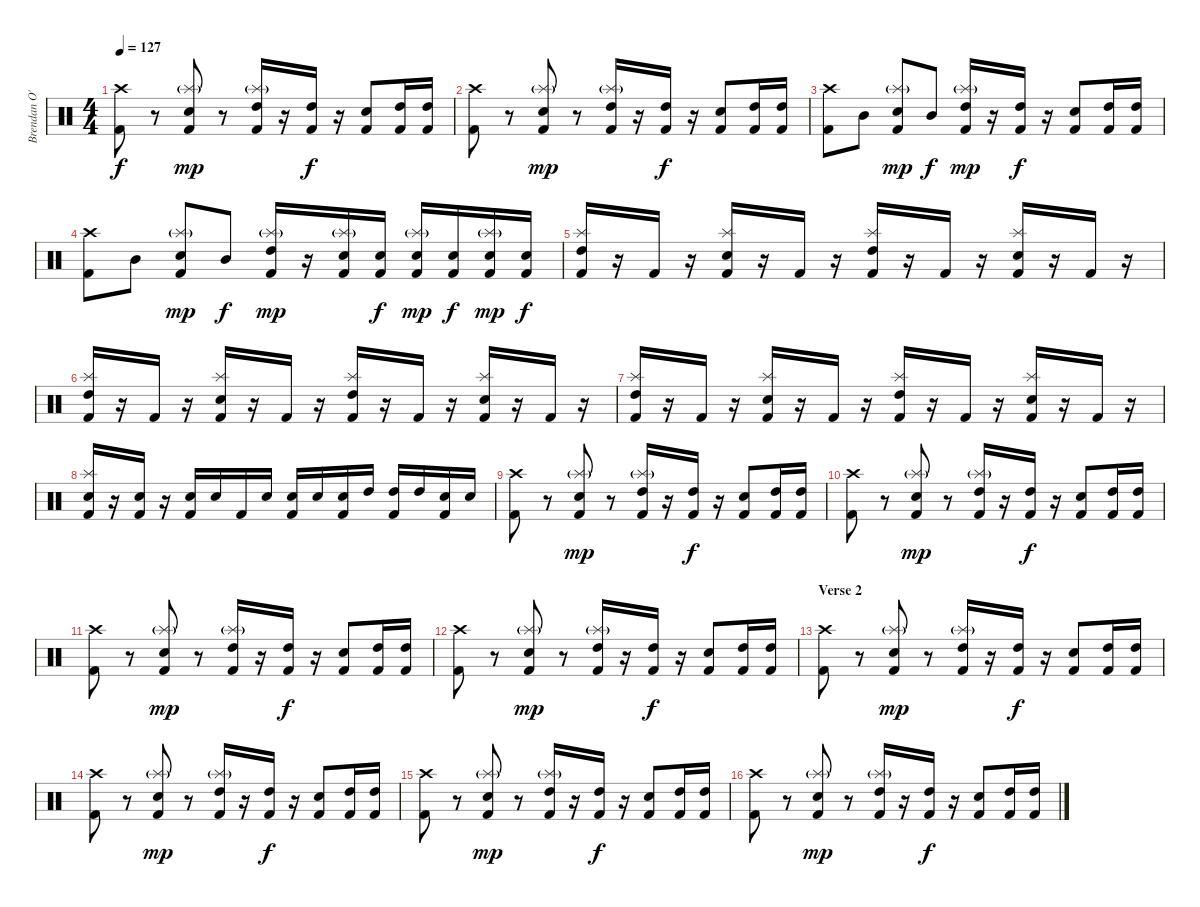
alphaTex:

\track ("Brendan O'Neil" "Brendan O'") {instrument percussion}
\staff {score}
\articulation defaults
\ts (4 4)
\tempo 127
\clef neutral
\ks c
("Crash high (hit)" "Kick (hit) 2").8{dy f} r.8 ("Splash (hit)"{g} "Snare (hit) 2" "Kick (hit) 2").8{dy mp} r.8 ("Splash (hit)"{g} "High Tom (hit)" "Kick (hit) 2").16 r.16 ("High Tom (hit)" "Kick (hit) 2").16{dy f} r.16 ("Snare (hit) 2" "Kick (hit) 2").8 ("High Tom (hit)" "Kick (hit) 2").16 ("High Tom (hit)" "Kick (hit) 2").16 |
("Crash high (hit)" "Kick (hit) 2").8 r.8 ("Splash (hit)"{g} "Snare (hit) 2" "Kick (hit) 2").8{dy mp} r.8 ("Splash (hit)"{g} "High Tom (hit)" "Kick (hit) 2").16 r.16 ("High Tom (hit)" "Kick (hit) 2").16{dy f} r.16 ("Snare (hit) 2" "Kick (hit) 2").8 ("High Tom (hit)" "Kick (hit) 2").16 ("High Tom (hit)" "Kick (hit) 2").16 |
("Crash high (hit)" "Kick (hit) 2").8 "Mid Tom (hit)".8 ("Splash (hit)"{g} "Snare (hit) 2" "Kick (hit) 2").8{dy mp} "Mid Tom (hit)".8{dy f} ("Splash (hit)"{g} "High Tom (hit)" "Kick (hit) 2").16{dy mp} r.16 ("High Tom (hit)" "Kick (hit) 2").16{dy f} r.16 ("Snare (hit) 2" "Kick (hit) 2").8 ("High Tom (hit)" "Kick (hit) 2").16 ("High Tom (hit)" "Kick (hit) 2").16 |
("Crash high (hit)" "Kick (hit) 2").8 "Mid Tom (hit)".8 ("Splash (hit)"{g} "Snare (hit) 2" "Kick (hit) 2").8{dy mp} "Mid Tom (hit)".8{dy f} ("Splash (hit)"{g} "High Tom (hit)" "Kick (hit) 2").16{dy mp} r.16 ("Splash (hit)"{g} "Snare (hit) 2" "Kick (hit) 2").16 ("Snare (hit) 2" "Kick (hit) 2").16{dy f} ("Splash (hit)"{g} "Snare (hit) 2" "Kick (hit) 2").16{dy mp} ("Snare (hit) 2" "Kick (hit) 2").16{dy f} ("Splash (hit)"{g} "Snare (hit) 2" "Kick (hit) 2").16{dy mp} ("Snare (hit) 2" "Kick (hit) 2").16{dy f} |
("Splash (hit)" "High Tom (hit)" "Kick (hit) 2").16 r.16 "Kick (hit) 2".16 r.16 ("Splash (hit)" "Snare (hit) 2" "Kick (hit) 2").16 r.16 "Kick (hit) 2".16 r.16 ("Splash (hit)" "High Tom (hit)" "Kick (hit) 2").16 r.16 "Kick (hit) 2".16 r.16 ("Splash (hit)" "Snare (hit) 2" "Kick (hit) 2").16 r.16 "Kick (hit) 2".16 r.16 |
("Splash (hit)" "High Tom (hit)" "Kick (hit) 2").16 r.16 "Kick (hit) 2".16 r.16 ("Splash (hit)" "Snare (hit) 2" "Kick (hit) 2").16 r.16 "Kick (hit) 2".16 r.16 ("Splash (hit)" "High Tom (hit)" "Kick (hit) 2").16 r.16 "Kick (hit) 2".16 r.16 ("Splash (hit)" "Snare (hit) 2" "Kick (hit) 2").16 r.16 "Kick (hit) 2".16 r.16 |
("Splash (hit)" "High Tom (hit)" "Kick (hit) 2").16 r.16 "Kick (hit) 2".16 r.16 ("Splash (hit)" "Snare (hit) 2" "Kick (hit) 2").16 r.16 "Kick (hit) 2".16 r.16 ("Splash (hit)" "High Tom (hit)" "Kick (hit) 2").16 r.16 "Kick (hit) 2".16 r.16 ("Splash (hit)" "Snare (hit) 2" "Kick (hit) 2").16 r.16 "Kick (hit) 2".16 r.16 |
("Splash (hit)" "Snare (hit) 2" "Kick (hit) 2").16 r.16 ("Snare (hit) 2" "Kick (hit) 2").16 r.16 ("Snare (hit) 2" "Kick (hit) 2").16 "Snare (hit) 2".16 "Kick (hit) 2".16 "Snare (hit) 2".16 ("Snare (hit) 2" "Kick (hit) 2").16 "Snare (hit) 2".16 ("Snare (hit) 2" "Kick (hit) 2").16 "High Tom (hit)".16 ("High Tom (hit)" "Kick (hit) 2").16 "High Tom (hit)".16 ("Snare (hit) 2" "Kick (hit) 2").16 "Snare (hit) 2".16 |
("Crash high (hit)" "Kick (hit) 2").8 r.8 ("Splash (hit)"{g} "Snare (hit) 2" "Kick (hit) 2").8{dy mp} r.8 ("Splash (hit)"{g} "High Tom (hit)" "Kick (hit) 2").16 r.16 ("High Tom (hit)" "Kick (hit) 2").16{dy f} r.16 ("Snare (hit) 2" "Kick (hit) 2").8 ("High Tom (hit)" "Kick (hit) 2").16 ("High Tom (hit)" "Kick (hit) 2").16 |
("Crash high (hit)" "Kick (hit) 2").8 r.8 ("Splash (hit)"{g} "Snare (hit) 2" "Kick (hit) 2").8{dy mp} r.8 ("Splash (hit)"{g} "High Tom (hit)" "Kick (hit) 2").16 r.16 ("High Tom (hit)" "Kick (hit) 2").16{dy f} r.16 ("Snare (hit) 2" "Kick (hit) 2").8 ("High Tom (hit)" "Kick (hit) 2").16 ("High Tom (hit)" "Kick (hit) 2").16 |
("Crash high (hit)" "Kick (hit) 2").8 r.8 ("Splash (hit)"{g} "Snare (hit) 2" "Kick (hit) 2").8{dy mp} r.8 ("Splash (hit)"{g} "High Tom (hit)" "Kick (hit) 2").16 r.16 ("High Tom (hit)" "Kick (hit) 2").16{dy f} r.16 ("Snare (hit) 2" "Kick (hit) 2").8 ("High Tom (hit)" "Kick (hit) 2").16 ("High Tom (hit)" "Kick (hit) 2").16 |
("Crash high (hit)" "Kick (hit) 2").8 r.8 ("Splash (hit)"{g} "Snare (hit) 2" "Kick (hit) 2").8{dy mp} r.8 ("Splash (hit)"{g} "High Tom (hit)" "Kick (hit) 2").16 r.16 ("High Tom (hit)" "Kick (hit) 2").16{dy f} r.16 ("Snare (hit) 2" "Kick (hit) 2").8 ("High Tom (hit)" "Kick (hit) 2").16 ("High Tom (hit)" "Kick (hit) 2").16 |
\section ("" "Verse 2")
("Crash high (hit)" "Kick (hit) 2").8 r.8 ("Splash (hit)"{g} "Snare (hit) 2" "Kick (hit) 2").8{dy mp} r.8 ("Splash (hit)"{g} "High Tom (hit)" "Kick (hit) 2").16 r.16 ("High Tom (hit)" "Kick (hit) 2").16{dy f} r.16 ("Snare (hit) 2" "Kick (hit) 2").8 ("High Tom (hit)" "Kick (hit) 2").16 ("High Tom (hit)" "Kick (hit) 2").16 |
("Crash high (hit)" "Kick (hit) 2").8 r.8 ("Splash (hit)"{g} "Snare (hit) 2" "Kick (hit) 2").8{dy mp} r.8 ("Splash (hit)"{g} "High Tom (hit)" "Kick (hit) 2").16 r.16 ("High Tom (hit)" "Kick (hit) 2").16{dy f} r.16 ("Snare (hit) 2" "Kick (hit) 2").8 ("High Tom (hit)" "Kick (hit) 2").16 ("High Tom (hit)" "Kick (hit) 2").16 |
("Crash high (hit)" "Kick (hit) 2").8 r.8 ("Splash (hit)"{g} "Snare (hit) 2" "Kick (hit) 2").8{dy mp} r.8 ("Splash (hit)"{g} "High Tom (hit)" "Kick (hit) 2").16 r.16 ("High Tom (hit)" "Kick (hit) 2").16{dy f} r.16 ("Snare (hit) 2" "Kick (hit) 2").8 ("High Tom (hit)" "Kick (hit) 2").16 ("High Tom (hit)" "Kick (hit) 2").16 |
("Crash high (hit)" "Kick (hit) 2").8 r.8 ("Splash (hit)"{g} "Snare (hit) 2" "Kick (hit) 2").8{dy mp} r.8 ("Splash (hit)"{g} "High Tom (hit)" "Kick (hit) 2").16 r.16 ("High Tom (hit)" "Kick (hit) 2").16{dy f} r.16 ("Snare (hit) 2" "Kick (hit) 2").8 ("High Tom (hit)" "Kick (hit) 2").16 ("High Tom (hit)" "Kick (hit) 2").16
